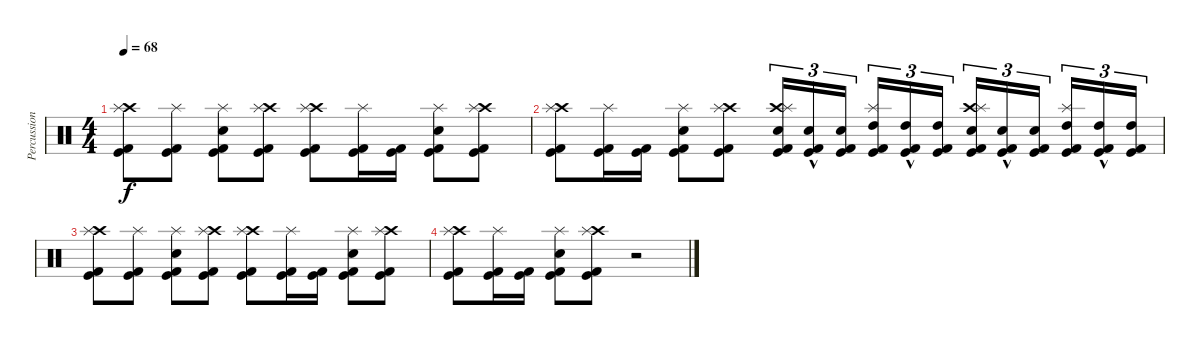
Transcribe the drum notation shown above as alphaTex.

\track ("Percussion" "Percussion") {instrument percussion}
\staff {score}
\articulation defaults
\ts (4 4)
\tempo 68
\clef neutral
\ks c
("Kick (hit)" "Kick (hit) 2" "Crash high (hit)" "Splash (hit)").8{dy f volume 3} ("Kick (hit)" "Kick (hit) 2" "Splash (hit)").8 ("Kick (hit)" "Kick (hit) 2" "Snare (hit) 2" "Splash (hit)").8 ("Kick (hit)" "Kick (hit) 2" "Crash high (hit)" "Splash (hit)").8 ("Kick (hit)" "Kick (hit) 2" "Crash high (hit)" "Splash (hit)").8 ("Kick (hit)" "Kick (hit) 2" "Splash (hit)").16 ("Kick (hit)" "Kick (hit) 2").16 ("Kick (hit)" "Kick (hit) 2" "Snare (hit) 2" "Splash (hit)").8 ("Kick (hit)" "Kick (hit) 2" "Crash high (hit)" "Splash (hit)").8 |
("Kick (hit)" "Kick (hit) 2" "Crash high (hit)" "Splash (hit)").8 ("Kick (hit)" "Kick (hit) 2" "Splash (hit)").16 ("Kick (hit)" "Kick (hit) 2").16 ("Kick (hit)" "Kick (hit) 2" "Snare (hit) 2" "Splash (hit)").8 ("Kick (hit)" "Kick (hit) 2" "Crash high (hit)" "Splash (hit)").8 ("Kick (hit)" "Kick (hit) 2" "Snare (hit) 2" "Crash high (hit)" "Splash (hit)").16{tu (3 2)} ("Kick (hit)"{hac} "Kick (hit) 2"{hac} "Snare (hit) 2"{hac}).16{tu (3 2)} ("Kick (hit)" "Kick (hit) 2" "Snare (hit) 2").16{tu (3 2)} ("Kick (hit)" "Kick (hit) 2" "High Tom (hit)" "Splash (hit)").16{tu (3 2)} ("Kick (hit)"{hac} "Kick (hit) 2"{hac} "High Tom (hit)"{hac}).16{tu (3 2)} ("Kick (hit)" "Kick (hit) 2" "High Tom (hit)").16{tu (3 2)} ("Kick (hit)" "Kick (hit) 2" "Snare (hit) 2" "Crash high (hit)" "Splash (hit)").16{tu (3 2)} ("Kick (hit)"{hac} "Kick (hit) 2"{hac} "Snare (hit) 2"{hac}).16{tu (3 2)} ("Kick (hit)" "Kick (hit) 2" "Snare (hit) 2").16{tu (3 2)} ("Kick (hit)" "Kick (hit) 2" "High Tom (hit)" "Splash (hit)").16{tu (3 2)} ("Kick (hit)"{hac} "Kick (hit) 2"{hac} "High Tom (hit)"{hac}).16{tu (3 2)} ("Kick (hit)" "Kick (hit) 2" "High Tom (hit)").16{tu (3 2)} |
("Kick (hit)" "Kick (hit) 2" "Crash high (hit)" "Splash (hit)").8{volume 0} ("Kick (hit)" "Kick (hit) 2" "Splash (hit)").8 ("Kick (hit)" "Kick (hit) 2" "Snare (hit) 2" "Splash (hit)").8 ("Kick (hit)" "Kick (hit) 2" "Crash high (hit)" "Splash (hit)").8 ("Kick (hit)" "Kick (hit) 2" "Crash high (hit)" "Splash (hit)").8 ("Kick (hit)" "Kick (hit) 2" "Splash (hit)").16 ("Kick (hit)" "Kick (hit) 2").16 ("Kick (hit)" "Kick (hit) 2" "Snare (hit) 2" "Splash (hit)").8 ("Kick (hit)" "Kick (hit) 2" "Crash high (hit)" "Splash (hit)").8 |
("Kick (hit)" "Kick (hit) 2" "Crash high (hit)" "Splash (hit)").8 ("Kick (hit)" "Kick (hit) 2" "Splash (hit)").16 ("Kick (hit)" "Kick (hit) 2").16 ("Kick (hit)" "Kick (hit) 2" "Snare (hit) 2" "Splash (hit)").8 ("Kick (hit)" "Kick (hit) 2" "Crash high (hit)" "Splash (hit)").8 r.2
